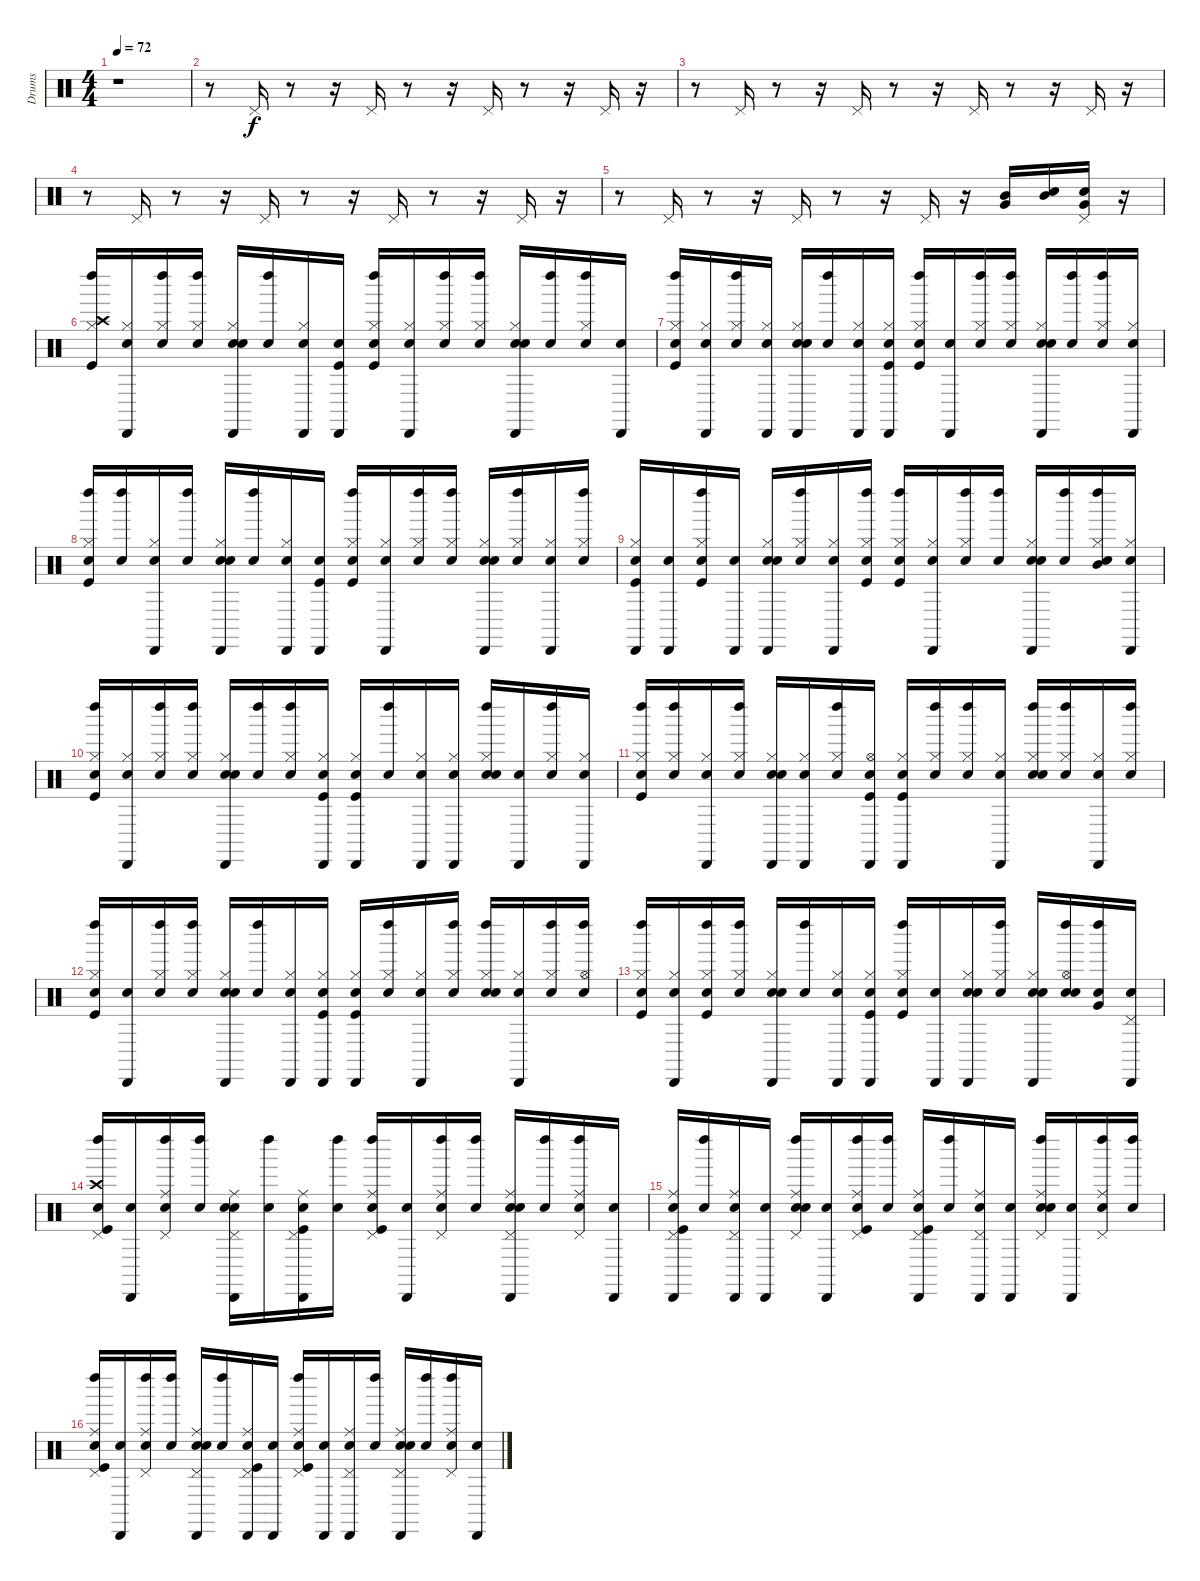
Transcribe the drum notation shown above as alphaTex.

\track ("Drums   " "Drums   ") {instrument percussion}
\staff {score}
\articulation defaults
\ts (4 4)
\tempo 72
\clef neutral
\ks c
r.1{dy f} |
r.8 "Pedal Hi-Hat (hit)".16 r.8 r.16 "Pedal Hi-Hat (hit)".16 r.8 r.16 "Pedal Hi-Hat (hit)".16 r.8 r.16 "Pedal Hi-Hat (hit)".16 r.16 |
r.8 "Pedal Hi-Hat (hit)".16 r.8 r.16 "Pedal Hi-Hat (hit)".16 r.8 r.16 "Pedal Hi-Hat (hit)".16 r.8 r.16 "Pedal Hi-Hat (hit)".16 r.16 |
r.8 "Pedal Hi-Hat (hit)".16 r.8 r.16 "Pedal Hi-Hat (hit)".16 r.8 r.16 "Pedal Hi-Hat (hit)".16 r.8 r.16 "Pedal Hi-Hat (hit)".16 r.16 |
r.8 "Pedal Hi-Hat (hit)".16 r.8 r.16 "Pedal Hi-Hat (hit)".16 r.8 r.16 "Pedal Hi-Hat (hit)".16 r.16 ("Mid Tom (hit)" "Very Low Tom (hit)").16 ("Snare (hit)" "Mid Tom (hit)").16 ("Snare (hit)" "Very Low Tom (hit)" "Pedal Hi-Hat (hit)").16 r.16 |
("Kick (hit)" "Hi-Hat (closed)" "Crash high (hit)" "Left Maraca (hit)").16 ("Snare (hit)" "Cabasa (hit)" "Hi-Hat (closed)").16 ("Snare (hit)" "Hi-Hat (closed)" "Left Maraca (hit)").16 ("Snare (hit)" "Hi-Hat (closed)" "Left Maraca (hit)").16 ("Snare (hit)" "Hi-Hat (closed)" "Cabasa (hit)" "Snare (hit) 2").16 ("Snare (hit)" "Left Maraca (hit)").16 ("Snare (hit)" "Cabasa (hit)" "Hi-Hat (closed)").16 ("Snare (hit)" "Cabasa (hit)" "Kick (hit)").16 ("Snare (hit)" "Hi-Hat (closed)" "Kick (hit)" "Left Maraca (hit)").16 ("Snare (hit)" "Cabasa (hit)" "Hi-Hat (closed)").16 ("Snare (hit)" "Hi-Hat (closed)" "Left Maraca (hit)").16 ("Snare (hit)" "Hi-Hat (closed)" "Left Maraca (hit)").16 ("Snare (hit)" "Cabasa (hit)" "Snare (hit) 2" "Hi-Hat (closed)").16 ("Snare (hit)" "Left Maraca (hit)").16 ("Snare (hit)" "Left Maraca (hit)" "Hi-Hat (closed)").16 ("Snare (hit)" "Cabasa (hit)").16 |
("Snare (hit)" "Kick (hit)" "Hi-Hat (closed)" "Left Maraca (hit)").16 ("Snare (hit)" "Cabasa (hit)" "Hi-Hat (closed)").16 ("Snare (hit)" "Hi-Hat (closed)" "Left Maraca (hit)").16 ("Snare (hit)" "Cabasa (hit)" "Hi-Hat (closed)").16 ("Snare (hit)" "Cabasa (hit)" "Snare (hit) 2" "Hi-Hat (closed)").16 ("Snare (hit)" "Left Maraca (hit)").16 ("Snare (hit)" "Cabasa (hit)" "Hi-Hat (closed)").16 ("Snare (hit)" "Cabasa (hit)" "Kick (hit)" "Hi-Hat (closed)").16 ("Snare (hit)" "Kick (hit)" "Hi-Hat (closed)" "Left Maraca (hit)").16 ("Snare (hit)" "Cabasa (hit)").16 ("Snare (hit)" "Hi-Hat (closed)" "Left Maraca (hit)").16 ("Snare (hit)" "Left Maraca (hit)" "Hi-Hat (closed)").16 ("Snare (hit)" "Cabasa (hit)" "Snare (hit) 2" "Hi-Hat (closed)").16 ("Snare (hit)" "Left Maraca (hit)").16 ("Snare (hit)" "Hi-Hat (closed)" "Left Maraca (hit)").16 ("Snare (hit)" "Cabasa (hit)" "Hi-Hat (closed)").16 |
("Snare (hit)" "Kick (hit)" "Hi-Hat (closed)" "Left Maraca (hit)").16 ("Snare (hit)" "Left Maraca (hit)").16 ("Snare (hit)" "Cabasa (hit)" "Hi-Hat (closed)").16 ("Snare (hit)" "Left Maraca (hit)").16 ("Snare (hit)" "Cabasa (hit)" "Snare (hit) 2" "Hi-Hat (closed)").16 ("Snare (hit)" "Left Maraca (hit)").16 ("Snare (hit)" "Hi-Hat (closed)" "Cabasa (hit)").16 ("Snare (hit)" "Kick (hit)" "Cabasa (hit)").16 ("Snare (hit)" "Kick (hit)" "Hi-Hat (closed)" "Left Maraca (hit)").16 ("Snare (hit)" "Hi-Hat (closed)" "Cabasa (hit)").16 ("Snare (hit)" "Hi-Hat (closed)" "Left Maraca (hit)").16 ("Snare (hit)" "Hi-Hat (closed)" "Left Maraca (hit)").16 ("Snare (hit)" "Cabasa (hit)" "Hi-Hat (closed)" "Snare (hit) 2").16 ("Snare (hit)" "Hi-Hat (closed)" "Left Maraca (hit)").16 ("Snare (hit)" "Cabasa (hit)" "Hi-Hat (closed)").16 ("Snare (hit)" "Hi-Hat (closed)" "Left Maraca (hit)").16 |
("Snare (hit)" "Hi-Hat (closed)" "Kick (hit)" "Cabasa (hit)").16 ("Snare (hit)" "Cabasa (hit)").16 ("Snare (hit)" "Kick (hit)" "Hi-Hat (closed)" "Left Maraca (hit)").16 ("Snare (hit)" "Cabasa (hit)").16 ("Snare (hit)" "Cabasa (hit)" "Snare (hit) 2" "Hi-Hat (closed)").16 ("Snare (hit)" "Hi-Hat (closed)" "Left Maraca (hit)").16 ("Snare (hit)" "Hi-Hat (closed)" "Cabasa (hit)").16 ("Snare (hit)" "Hi-Hat (closed)" "Kick (hit)" "Left Maraca (hit)").16 ("Snare (hit)" "Kick (hit)" "Hi-Hat (closed)" "Left Maraca (hit)").16 ("Snare (hit)" "Hi-Hat (closed)" "Cabasa (hit)").16 ("Snare (hit)" "Hi-Hat (closed)" "Left Maraca (hit)").16 ("Snare (hit)" "Left Maraca (hit)").16 ("Snare (hit)" "Hi-Hat (closed)" "Cabasa (hit)" "Snare (hit) 2").16 ("Snare (hit)" "Left Maraca (hit)").16 ("Snare (hit)" "Hi-Hat (closed)" "Mid Tom (hit)" "Left Maraca (hit)").16 ("Snare (hit)" "Hi-Hat (closed)" "Cabasa (hit)").16 |
("Snare (hit)" "Kick (hit)" "Hi-Hat (closed)" "Left Maraca (hit)").16 ("Snare (hit)" "Hi-Hat (closed)" "Cabasa (hit)").16 ("Snare (hit)" "Left Maraca (hit)" "Hi-Hat (closed)").16 ("Snare (hit)" "Hi-Hat (closed)" "Left Maraca (hit)").16 ("Snare (hit)" "Snare (hit) 2" "Hi-Hat (closed)" "Cabasa (hit)").16 ("Snare (hit)" "Left Maraca (hit)").16 ("Snare (hit)" "Hi-Hat (closed)" "Left Maraca (hit)").16 ("Snare (hit)" "Cabasa (hit)" "Kick (hit)" "Hi-Hat (closed)").16 ("Snare (hit)" "Kick (hit)" "Hi-Hat (closed)" "Cabasa (hit)").16 ("Snare (hit)" "Left Maraca (hit)").16 ("Snare (hit)" "Hi-Hat (closed)" "Cabasa (hit)").16 ("Snare (hit)" "Cabasa (hit)" "Hi-Hat (closed)").16 ("Snare (hit)" "Snare (hit) 2" "Hi-Hat (closed)" "Left Maraca (hit)").16 ("Snare (hit)" "Cabasa (hit)").16 ("Snare (hit)" "Hi-Hat (closed)" "Left Maraca (hit)").16 ("Snare (hit)" "Hi-Hat (closed)" "Cabasa (hit)").16 |
("Snare (hit)" "Hi-Hat (closed)" "Left Maraca (hit)" "Kick (hit)").16 ("Snare (hit)" "Hi-Hat (closed)" "Left Maraca (hit)").16 ("Snare (hit)" "Hi-Hat (closed)" "Cabasa (hit)").16 ("Snare (hit)" "Hi-Hat (closed)" "Left Maraca (hit)").16 ("Snare (hit)" "Snare (hit) 2" "Hi-Hat (closed)" "Cabasa (hit)").16 ("Snare (hit)" "Hi-Hat (closed)" "Cabasa (hit)").16 ("Snare (hit)" "Hi-Hat (closed)" "Left Maraca (hit)").16 ("Snare (hit)" "Cabasa (hit)" "Hi-Hat (open)" "Kick (hit)").16 ("Snare (hit)" "Cabasa (hit)" "Kick (hit)" "Hi-Hat (closed)").16 ("Snare (hit)" "Hi-Hat (closed)" "Left Maraca (hit)").16 ("Snare (hit)" "Hi-Hat (closed)" "Left Maraca (hit)").16 ("Snare (hit)" "Cabasa (hit)" "Hi-Hat (closed)").16 ("Snare (hit)" "Snare (hit) 2" "Hi-Hat (closed)" "Left Maraca (hit)").16 ("Snare (hit)" "Hi-Hat (closed)" "Left Maraca (hit)").16 ("Snare (hit)" "Cabasa (hit)" "Hi-Hat (closed)").16 ("Snare (hit)" "Left Maraca (hit)" "Hi-Hat (closed)").16 |
("Snare (hit)" "Kick (hit)" "Hi-Hat (closed)" "Left Maraca (hit)").16 ("Snare (hit)" "Cabasa (hit)").16 ("Snare (hit)" "Hi-Hat (closed)" "Left Maraca (hit)").16 ("Snare (hit)" "Hi-Hat (closed)" "Left Maraca (hit)").16 ("Snare (hit)" "Cabasa (hit)" "Snare (hit) 2" "Hi-Hat (closed)").16 ("Snare (hit)" "Left Maraca (hit)").16 ("Snare (hit)" "Cabasa (hit)" "Hi-Hat (closed)").16 ("Snare (hit)" "Kick (hit)" "Hi-Hat (closed)" "Cabasa (hit)").16 ("Snare (hit)" "Cabasa (hit)" "Hi-Hat (closed)" "Kick (hit)").16 ("Snare (hit)" "Left Maraca (hit)" "Hi-Hat (closed)").16 ("Snare (hit)" "Hi-Hat (closed)" "Cabasa (hit)").16 ("Snare (hit)" "Hi-Hat (closed)" "Left Maraca (hit)").16 ("Snare (hit)" "Hi-Hat (closed)" "Snare (hit) 2" "Left Maraca (hit)").16 ("Snare (hit)" "Cabasa (hit)" "Hi-Hat (closed)").16 ("Snare (hit)" "Hi-Hat (closed)" "Left Maraca (hit)").16 ("Snare (hit)" "Hi-Hat (open)" "Left Maraca (hit)").16 |
("Snare (hit)" "Hi-Hat (closed)" "Kick (hit)" "Left Maraca (hit)").16 ("Snare (hit)" "Cabasa (hit)" "Hi-Hat (closed)").16 ("Snare (hit)" "Hi-Hat (closed)" "Kick (hit)" "Left Maraca (hit)").16 ("Snare (hit)" "Hi-Hat (closed)" "Left Maraca (hit)").16 ("Snare (hit)" "Hi-Hat (closed)" "Snare (hit) 2" "Cabasa (hit)").16 ("Snare (hit)" "Left Maraca (hit)").16 ("Snare (hit)" "Cabasa (hit)" "Hi-Hat (closed)").16 ("Snare (hit)" "Cabasa (hit)" "Kick (hit)" "Hi-Hat (closed)").16 ("Snare (hit)" "Hi-Hat (closed)" "Kick (hit)" "Left Maraca (hit)").16 ("Snare (hit)" "Cabasa (hit)").16 ("Snare (hit)" "Cabasa (hit)" "Snare (hit) 2" "Hi-Hat (closed)").16 ("Snare (hit)" "Hi-Hat (closed)" "Left Maraca (hit)").16 ("Snare (hit)" "Cabasa (hit)" "Snare (hit) 2" "Hi-Hat (closed)").16 ("Snare (hit)" "Snare (hit) 2" "Left Maraca (hit)" "Hi-Hat (open)").16 ("Snare (hit)" "Very Low Tom (hit)" "Left Maraca (hit)").16 ("Snare (hit)" "Cabasa (hit)" "Pedal Hi-Hat (hit)").16 |
("Snare (hit)" "Kick (hit)" "Pedal Hi-Hat (hit)" "Crash high (hit)" "Left Maraca (hit)").16 ("Snare (hit)" "Cabasa (hit)").16 ("Snare (hit)" "Pedal Hi-Hat (hit)" "Ride (middle)" "Left Maraca (hit)").16 ("Snare (hit)" "Left Maraca (hit)").16 ("Snare (hit)" "Cabasa (hit)" "Ride (middle)" "Snare (hit) 2" "Pedal Hi-Hat (hit)").16 ("Snare (hit)" "Left Maraca (hit)").16 ("Snare (hit)" "Ride (middle)" "Kick (hit)" "Cabasa (hit)" "Pedal Hi-Hat (hit)").16 ("Snare (hit)" "Left Maraca (hit)").16 ("Snare (hit)" "Pedal Hi-Hat (hit)" "Kick (hit)" "Ride (middle)" "Left Maraca (hit)").16 ("Snare (hit)" "Cabasa (hit)").16 ("Snare (hit)" "Pedal Hi-Hat (hit)" "Left Maraca (hit)" "Ride (middle)").16 ("Snare (hit)" "Left Maraca (hit)").16 ("Snare (hit)" "Cabasa (hit)" "Snare (hit) 2" "Pedal Hi-Hat (hit)" "Ride (middle)").16 ("Snare (hit)" "Left Maraca (hit)").16 ("Snare (hit)" "Pedal Hi-Hat (hit)" "Ride (middle)" "Left Maraca (hit)").16 ("Snare (hit)" "Cabasa (hit)").16 |
("Snare (hit)" "Pedal Hi-Hat (hit)" "Cabasa (hit)" "Kick (hit)" "Ride (middle)").16 ("Snare (hit)" "Left Maraca (hit)").16 ("Snare (hit)" "Pedal Hi-Hat (hit)" "Ride (middle)" "Cabasa (hit)").16 ("Snare (hit)" "Cabasa (hit)").16 ("Snare (hit)" "Ride (middle)" "Snare (hit) 2" "Pedal Hi-Hat (hit)" "Left Maraca (hit)").16 ("Snare (hit)" "Cabasa (hit)").16 ("Snare (hit)" "Kick (hit)" "Left Maraca (hit)" "Pedal Hi-Hat (hit)" "Ride (middle)").16 ("Snare (hit)" "Left Maraca (hit)").16 ("Snare (hit)" "Ride (middle)" "Cabasa (hit)" "Kick (hit)" "Pedal Hi-Hat (hit)").16 ("Snare (hit)" "Left Maraca (hit)").16 ("Snare (hit)" "Pedal Hi-Hat (hit)" "Cabasa (hit)" "Ride (middle)").16 ("Snare (hit)" "Cabasa (hit)").16 ("Snare (hit)" "Snare (hit) 2" "Pedal Hi-Hat (hit)" "Ride (middle)" "Left Maraca (hit)").16 ("Snare (hit)" "Cabasa (hit)").16 ("Snare (hit)" "Ride (middle)" "Left Maraca (hit)" "Pedal Hi-Hat (hit)").16 ("Snare (hit)" "Left Maraca (hit)").16 |
("Snare (hit)" "Ride (middle)" "Kick (hit)" "Pedal Hi-Hat (hit)" "Left Maraca (hit)").16 ("Snare (hit)" "Cabasa (hit)").16 ("Snare (hit)" "Ride (middle)" "Pedal Hi-Hat (hit)" "Left Maraca (hit)").16 ("Snare (hit)" "Left Maraca (hit)").16 ("Snare (hit)" "Snare (hit) 2" "Ride (middle)" "Cabasa (hit)" "Pedal Hi-Hat (hit)").16 ("Snare (hit)" "Left Maraca (hit)").16 ("Snare (hit)" "Cabasa (hit)" "Ride (middle)" "Kick (hit)" "Pedal Hi-Hat (hit)").16 ("Snare (hit)" "Cabasa (hit)").16 ("Snare (hit)" "Left Maraca (hit)" "Kick (hit)" "Pedal Hi-Hat (hit)" "Ride (middle)").16 ("Snare (hit)" "Cabasa (hit)").16 ("Snare (hit)" "Cabasa (hit)" "Pedal Hi-Hat (hit)" "Ride (middle)").16 ("Snare (hit)" "Left Maraca (hit)").16 ("Snare (hit)" "Pedal Hi-Hat (hit)" "Ride (middle)" "Snare (hit) 2" "Cabasa (hit)").16 ("Snare (hit)" "Left Maraca (hit)").16 ("Snare (hit)" "Pedal Hi-Hat (hit)" "Ride (middle)" "Left Maraca (hit)").16 ("Snare (hit)" "Cabasa (hit)").16
